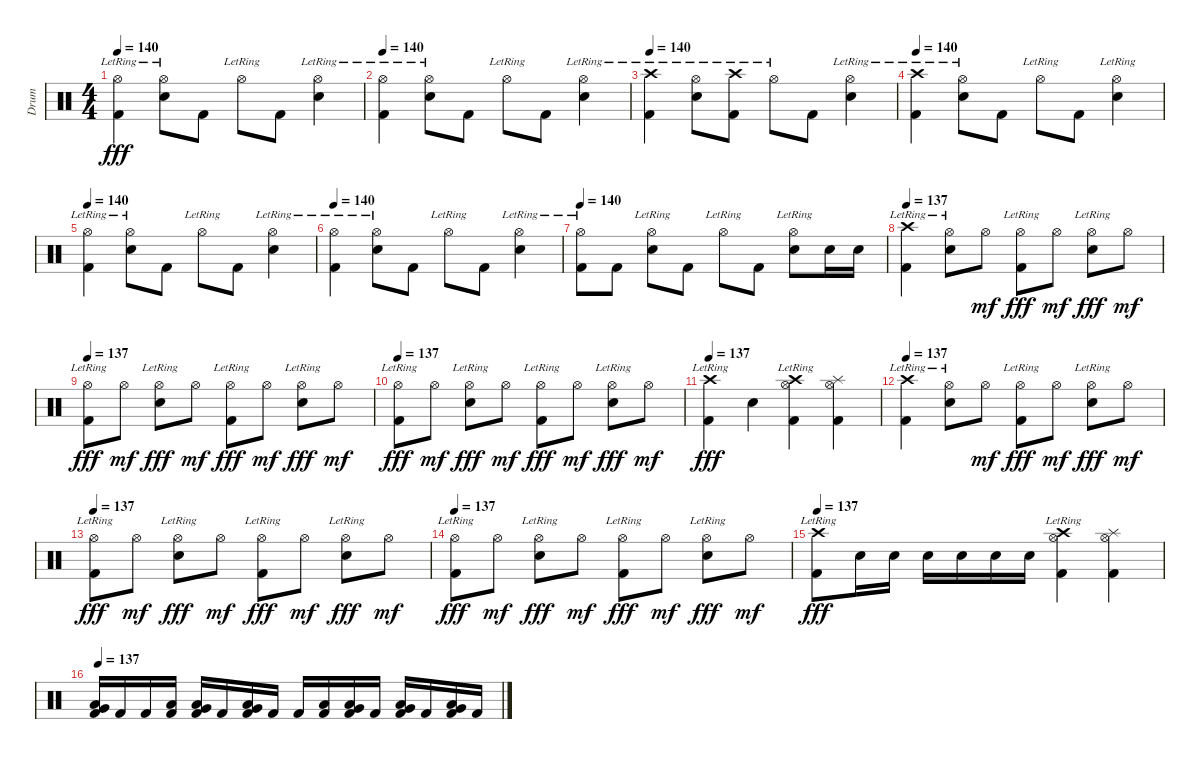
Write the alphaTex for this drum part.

\track ("Drum" "Drum") {instrument percussion}
\staff {score}
\articulation defaults
\ts (4 4)
\tempo 140
\clef neutral
\ks c
("Hi-Hat (open)"{lr} "Kick (hit) 2").4{dy fff} ("Hi-Hat (open)"{lr} "Electric Snare (hit)").8 "Kick (hit) 2".8 "Hi-Hat (open)"{lr}.8 "Kick (hit) 2".8 ("Hi-Hat (open)"{lr} "Electric Snare (hit)").4 |
\tempo 140
("Hi-Hat (open)"{lr} "Kick (hit) 2").4 ("Hi-Hat (open)"{lr} "Electric Snare (hit)").8 "Kick (hit) 2".8 "Hi-Hat (open)"{lr}.8 "Kick (hit) 2".8 ("Hi-Hat (open)"{lr} "Electric Snare (hit)").4 |
\tempo 140
("Crash high (hit)"{lr} "Kick (hit) 2").4 ("Hi-Hat (open)"{lr} "Electric Snare (hit)").8 ("Crash high (hit)"{lr} "Kick (hit) 2").8 "Hi-Hat (open)"{lr}.8 "Kick (hit) 2".8 ("Hi-Hat (open)"{lr} "Electric Snare (hit)").4 |
\tempo 140
("Crash high (hit)"{lr} "Kick (hit) 2").4 ("Hi-Hat (open)"{lr} "Electric Snare (hit)").8 "Kick (hit) 2".8 "Hi-Hat (open)"{lr}.8 "Kick (hit) 2".8 ("Hi-Hat (open)"{lr} "Electric Snare (hit)").4 |
\tempo 140
("Hi-Hat (open)"{lr} "Kick (hit) 2").4 ("Hi-Hat (open)"{lr} "Electric Snare (hit)").8 "Kick (hit) 2".8 "Hi-Hat (open)"{lr}.8 "Kick (hit) 2".8 ("Hi-Hat (open)"{lr} "Electric Snare (hit)").4 |
\tempo 140
("Hi-Hat (open)"{lr} "Kick (hit) 2").4 ("Hi-Hat (open)"{lr} "Electric Snare (hit)").8 "Kick (hit) 2".8 "Hi-Hat (open)"{lr}.8 "Kick (hit) 2".8 ("Hi-Hat (open)"{lr} "Electric Snare (hit)").4 |
\tempo 140
("Hi-Hat (open)"{lr} "Kick (hit) 2").8 "Kick (hit) 2".8 ("Hi-Hat (open)"{lr} "Electric Snare (hit)").8 "Kick (hit) 2".8 "Hi-Hat (open)"{lr}.8 "Kick (hit) 2".8 ("Hi-Hat (open)"{lr} "Electric Snare (hit)").8 "Electric Snare (hit)".16 "Electric Snare (hit)".16 |
\tempo 137
("Crash high (hit)"{lr} "Kick (hit) 2").4 ("Hi-Hat (open)"{lr} "Electric Snare (hit)").8 "Hi-Hat (open)".8{dy mf} ("Hi-Hat (open)"{lr} "Kick (hit) 2").8{dy fff} "Hi-Hat (open)".8{dy mf} ("Hi-Hat (open)"{lr} "Electric Snare (hit)").8{dy fff} "Hi-Hat (open)".8{dy mf} |
\tempo 137
("Hi-Hat (open)"{lr} "Kick (hit) 2").8{dy fff} "Hi-Hat (open)".8{dy mf} ("Hi-Hat (open)"{lr} "Electric Snare (hit)").8{dy fff} "Hi-Hat (open)".8{dy mf} ("Hi-Hat (open)"{lr} "Kick (hit) 2").8{dy fff} "Hi-Hat (open)".8{dy mf} ("Hi-Hat (open)"{lr} "Electric Snare (hit)").8{dy fff} "Hi-Hat (open)".8{dy mf} |
\tempo 137
("Hi-Hat (open)"{lr} "Kick (hit) 2").8{dy fff} "Hi-Hat (open)".8{dy mf} ("Hi-Hat (open)"{lr} "Electric Snare (hit)").8{dy fff} "Hi-Hat (open)".8{dy mf} ("Hi-Hat (open)"{lr} "Kick (hit) 2").8{dy fff} "Hi-Hat (open)".8{dy mf} ("Hi-Hat (open)"{lr} "Electric Snare (hit)").8{dy fff} "Hi-Hat (open)".8{dy mf} |
\tempo 137
("Crash high (hit)"{lr} "Kick (hit) 2").4{dy fff} "Electric Snare (hit)".4 ("Crash high (hit)"{lr} "Hi-Hat (open)" "Kick (hit) 2").4 ("Splash (hit)" "Hi-Hat (open)" "Kick (hit) 2").4 |
\tempo 137
("Crash high (hit)"{lr} "Kick (hit) 2").4 ("Hi-Hat (open)"{lr} "Electric Snare (hit)").8 "Hi-Hat (open)".8{dy mf} ("Hi-Hat (open)"{lr} "Kick (hit) 2").8{dy fff} "Hi-Hat (open)".8{dy mf} ("Hi-Hat (open)"{lr} "Electric Snare (hit)").8{dy fff} "Hi-Hat (open)".8{dy mf} |
\tempo 137
("Hi-Hat (open)"{lr} "Kick (hit) 2").8{dy fff} "Hi-Hat (open)".8{dy mf} ("Hi-Hat (open)"{lr} "Electric Snare (hit)").8{dy fff} "Hi-Hat (open)".8{dy mf} ("Hi-Hat (open)"{lr} "Kick (hit) 2").8{dy fff} "Hi-Hat (open)".8{dy mf} ("Hi-Hat (open)"{lr} "Electric Snare (hit)").8{dy fff} "Hi-Hat (open)".8{dy mf} |
\tempo 137
("Hi-Hat (open)"{lr} "Kick (hit) 2").8{dy fff} "Hi-Hat (open)".8{dy mf} ("Hi-Hat (open)"{lr} "Electric Snare (hit)").8{dy fff} "Hi-Hat (open)".8{dy mf} ("Hi-Hat (open)"{lr} "Kick (hit) 2").8{dy fff} "Hi-Hat (open)".8{dy mf} ("Hi-Hat (open)"{lr} "Electric Snare (hit)").8{dy fff} "Hi-Hat (open)".8{dy mf} |
\tempo 137
("Crash high (hit)"{lr} "Kick (hit) 2").8{dy fff} "Electric Snare (hit)".16 "Electric Snare (hit)".16 "Electric Snare (hit)".16 "Electric Snare (hit)".16 "Electric Snare (hit)".16 "Electric Snare (hit)".16 ("Crash high (hit)"{lr} "Hi-Hat (open)" "Kick (hit) 2").4 ("Splash (hit)" "Hi-Hat (open)" "Kick (hit) 2").4 |
\tempo 137
("Very Low Tom (hit)" "Low Tom (hit)" "Kick (hit) 2").16 "Kick (hit) 2".16 "Kick (hit) 2".16 ("Low Tom (hit)" "Kick (hit) 2").16 ("Very Low Tom (hit)" "Low Tom (hit)" "Kick (hit) 2").16 "Kick (hit) 2".16 ("Very Low Tom (hit)" "Low Tom (hit)" "Kick (hit) 2").16 "Kick (hit) 2".16 "Kick (hit) 2".16 ("Low Tom (hit)" "Kick (hit) 2").16 ("Very Low Tom (hit)" "Low Tom (hit)" "Kick (hit) 2").16 "Kick (hit) 2".16 ("Very Low Tom (hit)" "Low Tom (hit)" "Kick (hit) 2").16 "Kick (hit) 2".16 ("Very Low Tom (hit)" "Low Tom (hit)" "Kick (hit) 2").16 "Kick (hit) 2".16
